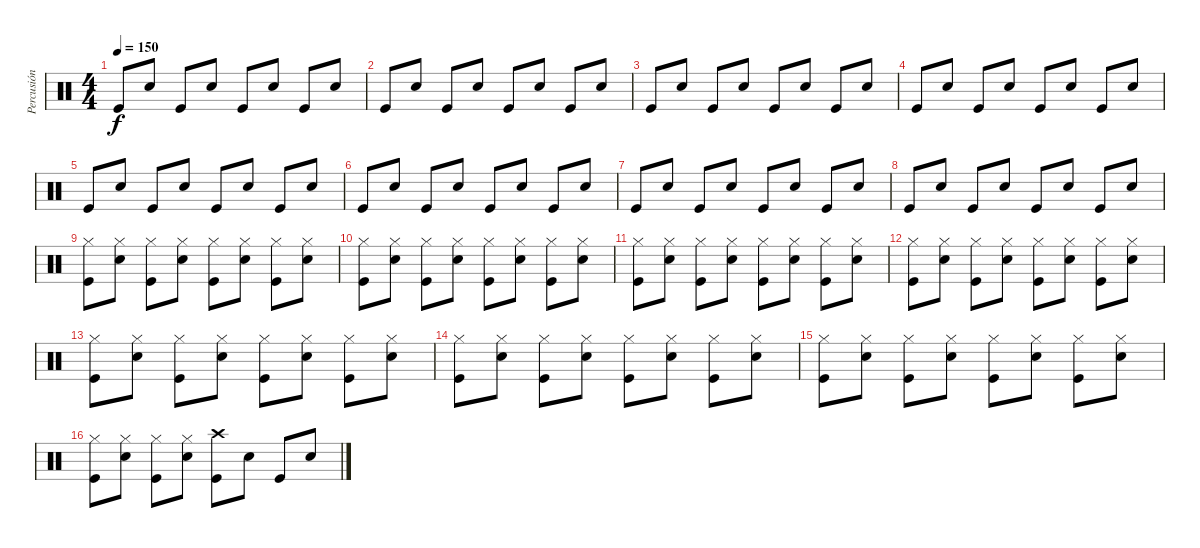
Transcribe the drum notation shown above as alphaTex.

\track ("Percusión" "Percusión") {instrument percussion}
\staff {score}
\articulation defaults
\ts (4 4)
\tempo 150
\clef neutral
\ks c "Kick (hit)".8{dy f} "Electric Snare (hit)".8 "Kick (hit)".8 "Electric Snare (hit)".8 "Kick (hit)".8 "Electric Snare (hit)".8 "Kick (hit)".8 "Electric Snare (hit)".8
|
"Kick (hit)".8 "Electric Snare (hit)".8 "Kick (hit)".8 "Electric Snare (hit)".8 "Kick (hit)".8 "Electric Snare (hit)".8 "Kick (hit)".8 "Electric Snare (hit)".8 |
"Kick (hit)".8 "Electric Snare (hit)".8 "Kick (hit)".8 "Electric Snare (hit)".8 "Kick (hit)".8 "Electric Snare (hit)".8 "Kick (hit)".8 "Electric Snare (hit)".8 |
"Kick (hit)".8 "Electric Snare (hit)".8 "Kick (hit)".8 "Electric Snare (hit)".8 "Kick (hit)".8 "Electric Snare (hit)".8 "Kick (hit)".8 "Electric Snare (hit)".8 |
"Kick (hit)".8 "Electric Snare (hit)".8 "Kick (hit)".8 "Electric Snare (hit)".8 "Kick (hit)".8 "Electric Snare (hit)".8 "Kick (hit)".8 "Electric Snare (hit)".8 |
"Kick (hit)".8 "Electric Snare (hit)".8 "Kick (hit)".8 "Electric Snare (hit)".8 "Kick (hit)".8 "Electric Snare (hit)".8 "Kick (hit)".8 "Electric Snare (hit)".8 |
"Kick (hit)".8 "Electric Snare (hit)".8 "Kick (hit)".8 "Electric Snare (hit)".8 "Kick (hit)".8 "Electric Snare (hit)".8 "Kick (hit)".8 "Electric Snare (hit)".8 |
"Kick (hit)".8 "Electric Snare (hit)".8 "Kick (hit)".8 "Electric Snare (hit)".8 "Kick (hit)".8 "Electric Snare (hit)".8 "Kick (hit)".8 "Electric Snare (hit)".8 |
("Kick (hit)" "Hi-Hat (closed)").8 ("Electric Snare (hit)" "Hi-Hat (closed)").8 ("Kick (hit)" "Hi-Hat (closed)").8 ("Electric Snare (hit)" "Hi-Hat (closed)").8 ("Kick (hit)" "Hi-Hat (closed)").8 ("Electric Snare (hit)" "Hi-Hat (closed)").8 ("Kick (hit)" "Hi-Hat (closed)").8 ("Electric Snare (hit)" "Hi-Hat (closed)").8 |
("Kick (hit)" "Hi-Hat (closed)").8 ("Electric Snare (hit)" "Hi-Hat (closed)").8 ("Kick (hit)" "Hi-Hat (closed)").8 ("Electric Snare (hit)" "Hi-Hat (closed)").8 ("Kick (hit)" "Hi-Hat (closed)").8 ("Electric Snare (hit)" "Hi-Hat (closed)").8 ("Kick (hit)" "Hi-Hat (closed)").8 ("Electric Snare (hit)" "Hi-Hat (closed)").8 |
("Kick (hit)" "Hi-Hat (closed)").8 ("Electric Snare (hit)" "Hi-Hat (closed)").8 ("Kick (hit)" "Hi-Hat (closed)").8 ("Electric Snare (hit)" "Hi-Hat (closed)").8 ("Kick (hit)" "Hi-Hat (closed)").8 ("Electric Snare (hit)" "Hi-Hat (closed)").8 ("Kick (hit)" "Hi-Hat (closed)").8 ("Electric Snare (hit)" "Hi-Hat (closed)").8 |
("Kick (hit)" "Hi-Hat (closed)").8 ("Electric Snare (hit)" "Hi-Hat (closed)").8 ("Kick (hit)" "Hi-Hat (closed)").8 ("Electric Snare (hit)" "Hi-Hat (closed)").8 ("Kick (hit)" "Hi-Hat (closed)").8 ("Electric Snare (hit)" "Hi-Hat (closed)").8 ("Kick (hit)" "Hi-Hat (closed)").8 ("Electric Snare (hit)" "Hi-Hat (closed)").8 |
("Kick (hit)" "Hi-Hat (closed)").8 ("Electric Snare (hit)" "Hi-Hat (closed)").8 ("Kick (hit)" "Hi-Hat (closed)").8 ("Electric Snare (hit)" "Hi-Hat (closed)").8 ("Kick (hit)" "Hi-Hat (closed)").8 ("Electric Snare (hit)" "Hi-Hat (closed)").8 ("Kick (hit)" "Hi-Hat (closed)").8 ("Electric Snare (hit)" "Hi-Hat (closed)").8 |
("Kick (hit)" "Hi-Hat (closed)").8 ("Electric Snare (hit)" "Hi-Hat (closed)").8 ("Kick (hit)" "Hi-Hat (closed)").8 ("Electric Snare (hit)" "Hi-Hat (closed)").8 ("Kick (hit)" "Hi-Hat (closed)").8 ("Electric Snare (hit)" "Hi-Hat (closed)").8 ("Kick (hit)" "Hi-Hat (closed)").8 ("Electric Snare (hit)" "Hi-Hat (closed)").8 |
("Kick (hit)" "Hi-Hat (closed)").8 ("Electric Snare (hit)" "Hi-Hat (closed)").8 ("Kick (hit)" "Hi-Hat (closed)").8 ("Electric Snare (hit)" "Hi-Hat (closed)").8 ("Kick (hit)" "Hi-Hat (closed)").8 ("Electric Snare (hit)" "Hi-Hat (closed)").8 ("Kick (hit)" "Hi-Hat (closed)").8 ("Electric Snare (hit)" "Hi-Hat (closed)").8 |
("Kick (hit)" "Hi-Hat (closed)").8 ("Electric Snare (hit)" "Hi-Hat (closed)").8 ("Kick (hit)" "Hi-Hat (closed)").8 ("Electric Snare (hit)" "Hi-Hat (closed)").8 ("Kick (hit)" "Crash high (hit)").8 "Electric Snare (hit)".8 "Kick (hit)".8 "Electric Snare (hit)".8
